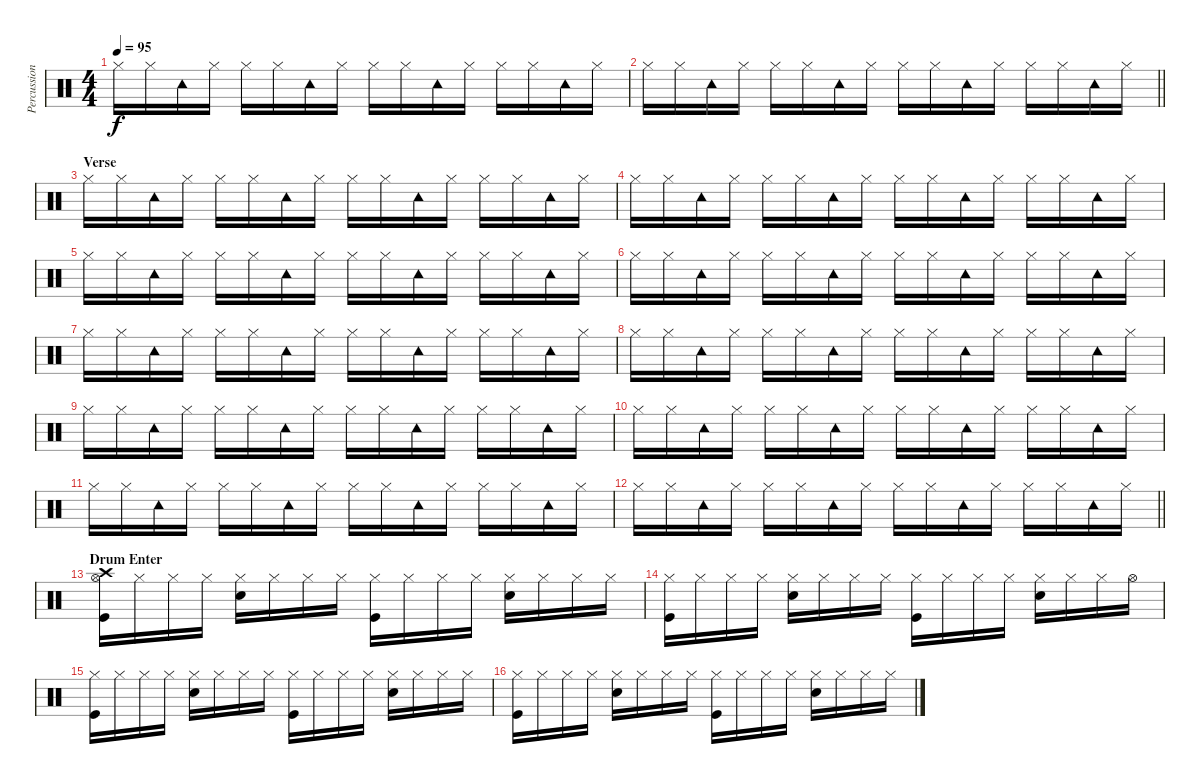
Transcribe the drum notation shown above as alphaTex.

\track ("Percussion" "Percussion") {instrument percussion}
\staff {score}
\articulation defaults
\ts (4 4)
\tempo 95
\clef neutral
\ks c "Hi-Hat (closed)".16{dy f} "Hi-Hat (closed)".16 "Tambourine (hit)".16 "Hi-Hat (closed)".16 "Hi-Hat (closed)".16 "Hi-Hat (closed)".16 "Tambourine (hit)".16 "Hi-Hat (closed)".16 "Hi-Hat (closed)".16 "Hi-Hat (closed)".16 "Tambourine (hit)".16 "Hi-Hat (closed)".16 "Hi-Hat (closed)".16 "Hi-Hat (closed)".16 "Tambourine (hit)".16 "Hi-Hat (closed)".16
|
\barLineRight lightlight "Hi-Hat (closed)".16 "Hi-Hat (closed)".16 "Tambourine (hit)".16 "Hi-Hat (closed)".16 "Hi-Hat (closed)".16 "Hi-Hat (closed)".16 "Tambourine (hit)".16 "Hi-Hat (closed)".16 "Hi-Hat (closed)".16 "Hi-Hat (closed)".16 "Tambourine (hit)".16 "Hi-Hat (closed)".16 "Hi-Hat (closed)".16 "Hi-Hat (closed)".16 "Tambourine (hit)".16 "Hi-Hat (closed)".16
|
\section ("" "Verse")
"Hi-Hat (closed)".16 "Hi-Hat (closed)".16 "Tambourine (hit)".16 "Hi-Hat (closed)".16 "Hi-Hat (closed)".16 "Hi-Hat (closed)".16 "Tambourine (hit)".16 "Hi-Hat (closed)".16 "Hi-Hat (closed)".16 "Hi-Hat (closed)".16 "Tambourine (hit)".16 "Hi-Hat (closed)".16 "Hi-Hat (closed)".16 "Hi-Hat (closed)".16 "Tambourine (hit)".16 "Hi-Hat (closed)".16 |
"Hi-Hat (closed)".16 "Hi-Hat (closed)".16 "Tambourine (hit)".16 "Hi-Hat (closed)".16 "Hi-Hat (closed)".16 "Hi-Hat (closed)".16 "Tambourine (hit)".16 "Hi-Hat (closed)".16 "Hi-Hat (closed)".16 "Hi-Hat (closed)".16 "Tambourine (hit)".16 "Hi-Hat (closed)".16 "Hi-Hat (closed)".16 "Hi-Hat (closed)".16 "Tambourine (hit)".16 "Hi-Hat (closed)".16 |
"Hi-Hat (closed)".16 "Hi-Hat (closed)".16 "Tambourine (hit)".16 "Hi-Hat (closed)".16 "Hi-Hat (closed)".16 "Hi-Hat (closed)".16 "Tambourine (hit)".16 "Hi-Hat (closed)".16 "Hi-Hat (closed)".16 "Hi-Hat (closed)".16 "Tambourine (hit)".16 "Hi-Hat (closed)".16 "Hi-Hat (closed)".16 "Hi-Hat (closed)".16 "Tambourine (hit)".16 "Hi-Hat (closed)".16 |
"Hi-Hat (closed)".16 "Hi-Hat (closed)".16 "Tambourine (hit)".16 "Hi-Hat (closed)".16 "Hi-Hat (closed)".16 "Hi-Hat (closed)".16 "Tambourine (hit)".16 "Hi-Hat (closed)".16 "Hi-Hat (closed)".16 "Hi-Hat (closed)".16 "Tambourine (hit)".16 "Hi-Hat (closed)".16 "Hi-Hat (closed)".16 "Hi-Hat (closed)".16 "Tambourine (hit)".16 "Hi-Hat (closed)".16 |
"Hi-Hat (closed)".16 "Hi-Hat (closed)".16 "Tambourine (hit)".16 "Hi-Hat (closed)".16 "Hi-Hat (closed)".16 "Hi-Hat (closed)".16 "Tambourine (hit)".16 "Hi-Hat (closed)".16 "Hi-Hat (closed)".16 "Hi-Hat (closed)".16 "Tambourine (hit)".16 "Hi-Hat (closed)".16 "Hi-Hat (closed)".16 "Hi-Hat (closed)".16 "Tambourine (hit)".16 "Hi-Hat (closed)".16 |
"Hi-Hat (closed)".16 "Hi-Hat (closed)".16 "Tambourine (hit)".16 "Hi-Hat (closed)".16 "Hi-Hat (closed)".16 "Hi-Hat (closed)".16 "Tambourine (hit)".16 "Hi-Hat (closed)".16 "Hi-Hat (closed)".16 "Hi-Hat (closed)".16 "Tambourine (hit)".16 "Hi-Hat (closed)".16 "Hi-Hat (closed)".16 "Hi-Hat (closed)".16 "Tambourine (hit)".16 "Hi-Hat (closed)".16 |
"Hi-Hat (closed)".16 "Hi-Hat (closed)".16 "Tambourine (hit)".16 "Hi-Hat (closed)".16 "Hi-Hat (closed)".16 "Hi-Hat (closed)".16 "Tambourine (hit)".16 "Hi-Hat (closed)".16 "Hi-Hat (closed)".16 "Hi-Hat (closed)".16 "Tambourine (hit)".16 "Hi-Hat (closed)".16 "Hi-Hat (closed)".16 "Hi-Hat (closed)".16 "Tambourine (hit)".16 "Hi-Hat (closed)".16 |
"Hi-Hat (closed)".16 "Hi-Hat (closed)".16 "Tambourine (hit)".16 "Hi-Hat (closed)".16 "Hi-Hat (closed)".16 "Hi-Hat (closed)".16 "Tambourine (hit)".16 "Hi-Hat (closed)".16 "Hi-Hat (closed)".16 "Hi-Hat (closed)".16 "Tambourine (hit)".16 "Hi-Hat (closed)".16 "Hi-Hat (closed)".16 "Hi-Hat (closed)".16 "Tambourine (hit)".16 "Hi-Hat (closed)".16 |
"Hi-Hat (closed)".16 "Hi-Hat (closed)".16 "Tambourine (hit)".16 "Hi-Hat (closed)".16 "Hi-Hat (closed)".16 "Hi-Hat (closed)".16 "Tambourine (hit)".16 "Hi-Hat (closed)".16 "Hi-Hat (closed)".16 "Hi-Hat (closed)".16 "Tambourine (hit)".16 "Hi-Hat (closed)".16 "Hi-Hat (closed)".16 "Hi-Hat (closed)".16 "Tambourine (hit)".16 "Hi-Hat (closed)".16 |
\barLineRight lightlight "Hi-Hat (closed)".16 "Hi-Hat (closed)".16 "Tambourine (hit)".16 "Hi-Hat (closed)".16 "Hi-Hat (closed)".16 "Hi-Hat (closed)".16 "Tambourine (hit)".16 "Hi-Hat (closed)".16 "Hi-Hat (closed)".16 "Hi-Hat (closed)".16 "Tambourine (hit)".16 "Hi-Hat (closed)".16 "Hi-Hat (closed)".16 "Hi-Hat (closed)".16 "Tambourine (hit)".16 "Hi-Hat (closed)".16
|
\section ("" "Drum Enter")
("Crash high (hit)" "Hi-Hat (open)" "Kick (hit)").16 "Hi-Hat (closed)".16 "Hi-Hat (closed)".16 "Hi-Hat (closed)".16 ("Hi-Hat (closed)" "Snare (hit) 2").16 "Hi-Hat (closed)".16 "Hi-Hat (closed)".16 "Hi-Hat (closed)".16 ("Hi-Hat (closed)" "Kick (hit)").16 "Hi-Hat (closed)".16 "Hi-Hat (closed)".16 "Hi-Hat (closed)".16 ("Hi-Hat (closed)" "Snare (hit) 2").16 "Hi-Hat (closed)".16 "Hi-Hat (closed)".16 "Hi-Hat (closed)".16 |
("Hi-Hat (closed)" "Kick (hit)").16 "Hi-Hat (closed)".16 "Hi-Hat (closed)".16 "Hi-Hat (closed)".16 ("Hi-Hat (closed)" "Snare (hit) 2").16 "Hi-Hat (closed)".16 "Hi-Hat (closed)".16 "Hi-Hat (closed)".16 ("Hi-Hat (closed)" "Kick (hit)").16 "Hi-Hat (closed)".16 "Hi-Hat (closed)".16 "Hi-Hat (closed)".16 ("Hi-Hat (closed)" "Snare (hit) 2").16 "Hi-Hat (closed)".16 "Hi-Hat (closed)".16 "Hi-Hat (open)".16 |
("Hi-Hat (closed)" "Kick (hit)").16 "Hi-Hat (closed)".16 "Hi-Hat (closed)".16 "Hi-Hat (closed)".16 ("Hi-Hat (closed)" "Snare (hit) 2").16 "Hi-Hat (closed)".16 "Hi-Hat (closed)".16 "Hi-Hat (closed)".16 ("Hi-Hat (closed)" "Kick (hit)").16 "Hi-Hat (closed)".16 "Hi-Hat (closed)".16 "Hi-Hat (closed)".16 ("Hi-Hat (closed)" "Snare (hit) 2").16 "Hi-Hat (closed)".16 "Hi-Hat (closed)".16 "Hi-Hat (closed)".16 |
("Hi-Hat (closed)" "Kick (hit)").16 "Hi-Hat (closed)".16 "Hi-Hat (closed)".16 "Hi-Hat (closed)".16 ("Hi-Hat (closed)" "Snare (hit) 2").16 "Hi-Hat (closed)".16 "Hi-Hat (closed)".16 "Hi-Hat (closed)".16 ("Hi-Hat (closed)" "Kick (hit)").16 "Hi-Hat (closed)".16 "Hi-Hat (closed)".16 "Hi-Hat (closed)".16 ("Hi-Hat (closed)" "Snare (hit) 2").16 "Hi-Hat (closed)".16 "Hi-Hat (closed)".16 "Hi-Hat (closed)".16
